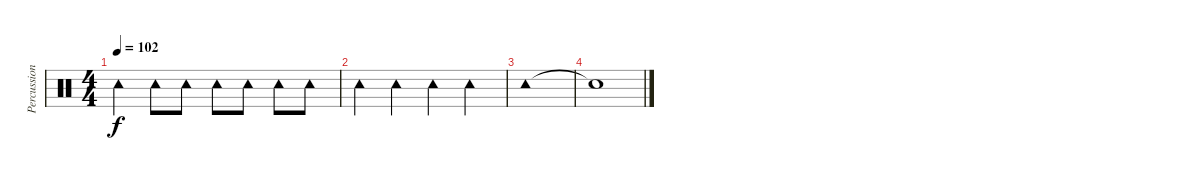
\track ("Percussion" "Percussion") {instrument percussion}
\staff {score}
\articulation defaults
\ts (4 4)
\tempo 102
\clef neutral
\ks c "Tambourine (hit)".4{dy f} "Tambourine (hit)".8 "Tambourine (hit)".8 "Tambourine (hit)".8 "Tambourine (hit)".8 "Tambourine (hit)".8 "Tambourine (hit)".8
|
"Tambourine (hit)".4 "Tambourine (hit)".4 "Tambourine (hit)".4 "Tambourine (hit)".4 |
"Tambourine (hit)".1 |
"Snare (hit)"{t}.1
